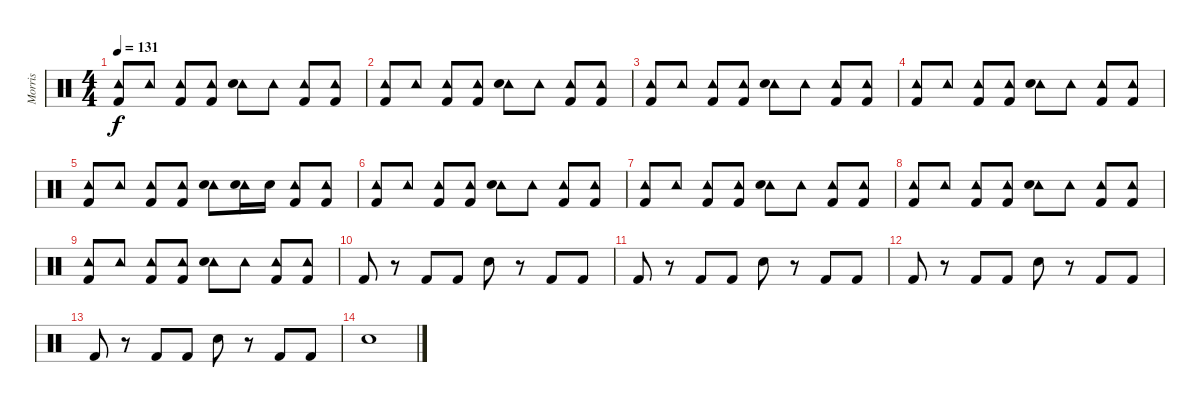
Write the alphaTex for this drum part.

\track ("Morris" "Morris") {instrument percussion}
\staff {score}
\articulation defaults
\ts (4 4)
\tempo 131
\clef neutral
\ks c
("Tambourine (hit)" "Kick (hit) 2").8{dy f} "Tambourine (hit)".8 ("Tambourine (hit)" "Kick (hit) 2").8 ("Tambourine (hit)" "Kick (hit) 2").8 ("Tambourine (hit)" "Electric Snare (hit)").8 "Tambourine (hit)".8 ("Tambourine (hit)" "Kick (hit) 2").8 ("Tambourine (hit)" "Kick (hit) 2").8 |
("Tambourine (hit)" "Kick (hit) 2").8 "Tambourine (hit)".8 ("Tambourine (hit)" "Kick (hit) 2").8 ("Tambourine (hit)" "Kick (hit) 2").8 ("Tambourine (hit)" "Electric Snare (hit)").8 "Tambourine (hit)".8 ("Tambourine (hit)" "Kick (hit) 2").8 ("Tambourine (hit)" "Kick (hit) 2").8 |
("Tambourine (hit)" "Kick (hit) 2").8 "Tambourine (hit)".8 ("Tambourine (hit)" "Kick (hit) 2").8 ("Tambourine (hit)" "Kick (hit) 2").8 ("Tambourine (hit)" "Electric Snare (hit)").8 "Tambourine (hit)".8 ("Tambourine (hit)" "Kick (hit) 2").8 ("Tambourine (hit)" "Kick (hit) 2").8 |
("Tambourine (hit)" "Kick (hit) 2").8 "Tambourine (hit)".8 ("Tambourine (hit)" "Kick (hit) 2").8 ("Tambourine (hit)" "Kick (hit) 2").8 ("Tambourine (hit)" "Electric Snare (hit)").8 "Tambourine (hit)".8 ("Tambourine (hit)" "Kick (hit) 2").8 ("Tambourine (hit)" "Kick (hit) 2").8 |
("Tambourine (hit)" "Kick (hit) 2").8 "Tambourine (hit)".8 ("Tambourine (hit)" "Kick (hit) 2").8 ("Tambourine (hit)" "Kick (hit) 2").8 ("Tambourine (hit)" "Electric Snare (hit)").8 ("Tambourine (hit)" "Electric Snare (hit)").16 "Electric Snare (hit)".16 ("Tambourine (hit)" "Kick (hit) 2").8 ("Tambourine (hit)" "Kick (hit) 2").8 |
("Tambourine (hit)" "Kick (hit) 2").8 "Tambourine (hit)".8 ("Tambourine (hit)" "Kick (hit) 2").8 ("Tambourine (hit)" "Kick (hit) 2").8 ("Tambourine (hit)" "Electric Snare (hit)").8 "Tambourine (hit)".8 ("Tambourine (hit)" "Kick (hit) 2").8 ("Tambourine (hit)" "Kick (hit) 2").8 |
("Tambourine (hit)" "Kick (hit) 2").8 "Tambourine (hit)".8 ("Tambourine (hit)" "Kick (hit) 2").8 ("Tambourine (hit)" "Kick (hit) 2").8 ("Tambourine (hit)" "Electric Snare (hit)").8 "Tambourine (hit)".8 ("Tambourine (hit)" "Kick (hit) 2").8 ("Tambourine (hit)" "Kick (hit) 2").8 |
("Tambourine (hit)" "Kick (hit) 2").8 "Tambourine (hit)".8 ("Tambourine (hit)" "Kick (hit) 2").8 ("Tambourine (hit)" "Kick (hit) 2").8 ("Tambourine (hit)" "Electric Snare (hit)").8 "Tambourine (hit)".8 ("Tambourine (hit)" "Kick (hit) 2").8 ("Tambourine (hit)" "Kick (hit) 2").8 |
("Tambourine (hit)" "Kick (hit) 2").8 "Tambourine (hit)".8 ("Tambourine (hit)" "Kick (hit) 2").8 ("Tambourine (hit)" "Kick (hit) 2").8 ("Tambourine (hit)" "Electric Snare (hit)").8 "Tambourine (hit)".8 ("Tambourine (hit)" "Kick (hit) 2").8 ("Tambourine (hit)" "Kick (hit) 2").8 |
"Kick (hit) 2".8{volume 5} r.8 "Kick (hit) 2".8 "Kick (hit) 2".8 "Electric Snare (hit)".8 r.8 "Kick (hit) 2".8 "Kick (hit) 2".8 |
"Kick (hit) 2".8 r.8 "Kick (hit) 2".8 "Kick (hit) 2".8 "Electric Snare (hit)".8 r.8 "Kick (hit) 2".8 "Kick (hit) 2".8 |
"Kick (hit) 2".8 r.8 "Kick (hit) 2".8 "Kick (hit) 2".8 "Electric Snare (hit)".8 r.8 "Kick (hit) 2".8 "Kick (hit) 2".8 |
"Kick (hit) 2".8 r.8 "Kick (hit) 2".8 "Kick (hit) 2".8 "Electric Snare (hit)".8 r.8 "Kick (hit) 2".8 "Kick (hit) 2".8 |
"Electric Snare (hit)".1
